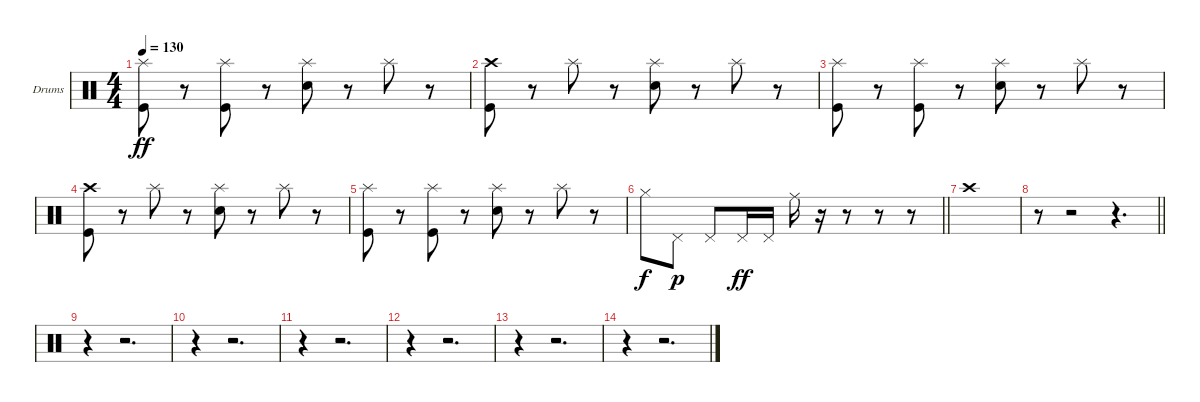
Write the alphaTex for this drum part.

\bracketExtendMode groupsimilarinstruments
\firstSystemTrackNameOrientation horizontal
\otherSystemsTrackNameOrientation horizontal
\track ("Drumkit" "Drums") {instrument percussion}
\staff {score}
\articulation defaults
\ts (4 4)
\tempo 130
\clef neutral
\ks c
("Kick (hit)" "Splash (hit)").8{dy ff} r.8 ("Kick (hit)" "Splash (hit)").8 r.8 ("Snare (hit) 2" "Splash (hit)").8 r.8 "Splash (hit)".8 r.8 |
("Kick (hit)" "Crash high (hit)").8 r.8 "Splash (hit)".8 r.8 ("Snare (hit) 2" "Splash (hit)").8 r.8 "Splash (hit)".8 r.8 |
("Kick (hit)" "Splash (hit)").8 r.8 ("Kick (hit)" "Splash (hit)").8 r.8 ("Snare (hit) 2" "Splash (hit)").8 r.8 "Splash (hit)".8 r.8 |
("Kick (hit)" "Crash high (hit)").8 r.8 "Splash (hit)".8 r.8 ("Snare (hit) 2" "Splash (hit)").8 r.8 "Splash (hit)".8 r.8 |
("Kick (hit)" "Splash (hit)").8 r.8 ("Kick (hit)" "Splash (hit)").8 r.8 ("Snare (hit) 2" "Splash (hit)").8 r.8 "Splash (hit)".8 r.8 |
\barLineRight lightlight "Hi-Hat (closed)".8{dy f} "Pedal Hi-Hat (hit)".8{dy p} "Pedal Hi-Hat (hit)".8 "Pedal Hi-Hat (hit)".16{dy ff} "Pedal Hi-Hat (hit)".16 "Ride (middle)".16
r.16 r.8 r.8 r.8 |
\section ("" "")
"Crash high (hit)".1 |
\barLineRight lightlight
r.8 r.2 r.4{d} |
r.4 r.2{d} |
r.4 r.2{d} |
r.4 r.2{d} |
r.4 r.2{d} |
r.4 r.2{d} |
r.4 r.2{d}
